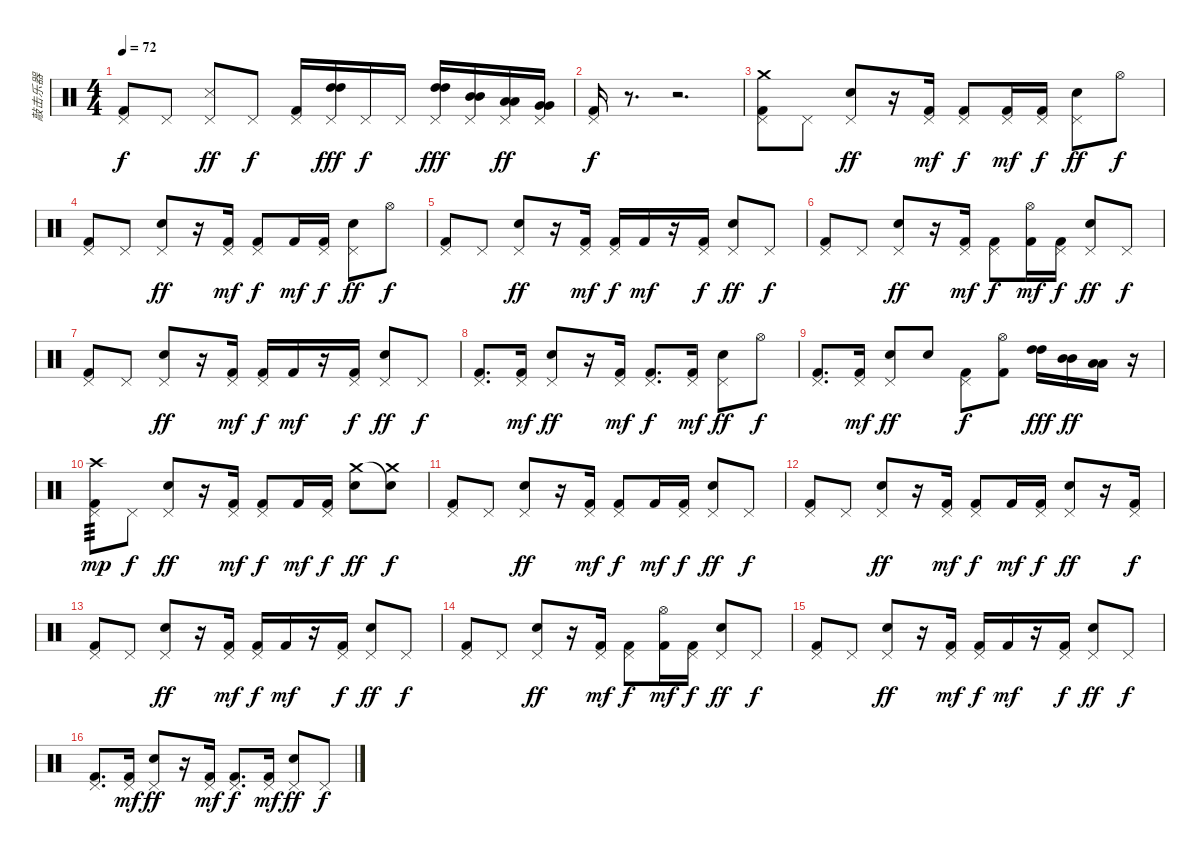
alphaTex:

\track ("敲击乐器" "敲击乐器") {instrument percussion}
\staff {score}
\articulation defaults
\ts (4 4)
\tempo 72
\clef neutral
\ks c
("Pedal Hi-Hat (hit)" "Kick (hit) 2").8{dy f} "Pedal Hi-Hat (hit)".8 ("Pedal Hi-Hat (hit)" "Snare (side stick) 3").8{dy ff} "Pedal Hi-Hat (hit)".8{dy f} ("Pedal Hi-Hat (hit)" "Kick (hit) 2").16 ("Pedal Hi-Hat (hit)" "High Tom (hit)" "High Tom (hit)").16{dy fff} "Pedal Hi-Hat (hit)".16{dy f} "Pedal Hi-Hat (hit)".16 ("Pedal Hi-Hat (hit)" "High Tom (hit)" "High Tom (hit)").16{dy fff} ("Pedal Hi-Hat (hit)" "Mid Tom (hit)" "Mid Tom (hit)").16 ("Pedal Hi-Hat (hit)" "Low Tom (hit)" "Low Tom (hit)").16{dy ff} ("Pedal Hi-Hat (hit)" "Very Low Tom (hit)" "Very Low Tom (hit)").16 |
("Pedal Hi-Hat (hit)" "Kick (hit) 2").16{dy f} r.8{d} r.2{d} |
("Pedal Hi-Hat (hit)" "Kick (hit) 2" "Crash medium (hit)").8 "Pedal Hi-Hat (hit)".8 ("Pedal Hi-Hat (hit)" "Electric Snare (hit)").8{dy ff} r.16 ("Pedal Hi-Hat (hit)" "Kick (hit) 2").16{dy mf} ("Pedal Hi-Hat (hit)" "Kick (hit) 2").8{dy f} ("Pedal Hi-Hat (hit)" "Kick (hit) 2").16{dy mf} ("Pedal Hi-Hat (hit)" "Kick (hit) 2").16{dy f} ("Pedal Hi-Hat (hit)" "Electric Snare (hit)").8{dy ff} "Hi-Hat (open)".8{dy f} |
("Pedal Hi-Hat (hit)" "Kick (hit) 2").8 "Pedal Hi-Hat (hit)".8 ("Pedal Hi-Hat (hit)" "Electric Snare (hit)").8{dy ff} r.16 ("Pedal Hi-Hat (hit)" "Kick (hit) 2").16{dy mf} ("Pedal Hi-Hat (hit)" "Kick (hit) 2").8{dy f} "Kick (hit) 2".16{dy mf} ("Pedal Hi-Hat (hit)" "Kick (hit) 2").16{dy f} ("Pedal Hi-Hat (hit)" "Electric Snare (hit)").8{dy ff} "Hi-Hat (open)".8{dy f} |
("Pedal Hi-Hat (hit)" "Kick (hit) 2").8 "Pedal Hi-Hat (hit)".8 ("Pedal Hi-Hat (hit)" "Electric Snare (hit)").8{dy ff} r.16 ("Pedal Hi-Hat (hit)" "Kick (hit) 2").16{dy mf} ("Pedal Hi-Hat (hit)" "Kick (hit) 2").16{dy f} "Kick (hit) 2".16{dy mf} r.16 ("Pedal Hi-Hat (hit)" "Kick (hit) 2").16{dy f} ("Pedal Hi-Hat (hit)" "Electric Snare (hit)").8{dy ff} "Pedal Hi-Hat (hit)".8{dy f} |
("Pedal Hi-Hat (hit)" "Kick (hit) 2").8 "Pedal Hi-Hat (hit)".8 ("Pedal Hi-Hat (hit)" "Electric Snare (hit)").8{dy ff} r.16 ("Pedal Hi-Hat (hit)" "Kick (hit) 2").16{dy mf} ("Pedal Hi-Hat (hit)" "Kick (hit) 2").8{dy f} ("Hi-Hat (open)" "Kick (hit) 2").16{dy mf} ("Pedal Hi-Hat (hit)" "Kick (hit) 2").16{dy f} ("Pedal Hi-Hat (hit)" "Electric Snare (hit)").8{dy ff} "Pedal Hi-Hat (hit)".8{dy f} |
("Pedal Hi-Hat (hit)" "Kick (hit) 2").8 "Pedal Hi-Hat (hit)".8 ("Pedal Hi-Hat (hit)" "Electric Snare (hit)").8{dy ff} r.16 ("Pedal Hi-Hat (hit)" "Kick (hit) 2").16{dy mf} ("Pedal Hi-Hat (hit)" "Kick (hit) 2").16{dy f} "Kick (hit) 2".16{dy mf} r.16 ("Pedal Hi-Hat (hit)" "Kick (hit) 2").16{dy f} ("Pedal Hi-Hat (hit)" "Electric Snare (hit)").8{dy ff} "Pedal Hi-Hat (hit)".8{dy f} |
("Pedal Hi-Hat (hit)" "Kick (hit) 2").8{d} ("Pedal Hi-Hat (hit)" "Kick (hit) 2").16{dy mf} ("Pedal Hi-Hat (hit)" "Electric Snare (hit)").8{dy ff} r.16 ("Pedal Hi-Hat (hit)" "Kick (hit) 2").16{dy mf} ("Pedal Hi-Hat (hit)" "Kick (hit) 2").8{d dy f} ("Pedal Hi-Hat (hit)" "Kick (hit) 2").16{dy mf} ("Pedal Hi-Hat (hit)" "Electric Snare (hit)").8{dy ff} "Hi-Hat (open)".8{dy f} |
("Pedal Hi-Hat (hit)" "Kick (hit) 2").8{d} ("Pedal Hi-Hat (hit)" "Kick (hit) 2").16{dy mf} ("Pedal Hi-Hat (hit)" "Electric Snare (hit)").8{dy ff} "Electric Snare (hit)".8 ("Pedal Hi-Hat (hit)" "Kick (hit) 2").8{dy f} ("Hi-Hat (open)" "Kick (hit) 2").8 ("High Tom (hit)" "High Tom (hit)").16{dy fff} ("Mid Tom (hit)" "Mid Tom (hit)").16{dy ff} ("Low Tom (hit)" "Low Tom (hit)").16 r.16 |
("Pedal Hi-Hat (hit)" "Kick (hit) 2" "Crash high (hit)").8{tp 3 dy mp} "Pedal Hi-Hat (hit)".8{dy f} ("Pedal Hi-Hat (hit)" "Electric Snare (hit)").8{dy ff} r.16 ("Pedal Hi-Hat (hit)" "Kick (hit) 2").16{dy mf} ("Pedal Hi-Hat (hit)" "Kick (hit) 2").8{dy f} "Kick (hit) 2".16{dy mf} ("Pedal Hi-Hat (hit)" "Kick (hit) 2").16{dy f} ("Electric Snare (hit)" "Crash medium (hit)").8{dy ff} ("Crash medium (hit)" "Snare (hit)"{t}).8{dy f} |
("Pedal Hi-Hat (hit)" "Kick (hit) 2").8 "Pedal Hi-Hat (hit)".8 ("Pedal Hi-Hat (hit)" "Electric Snare (hit)").8{dy ff} r.16 ("Pedal Hi-Hat (hit)" "Kick (hit) 2").16{dy mf} ("Pedal Hi-Hat (hit)" "Kick (hit) 2").8{dy f} "Kick (hit) 2".16{dy mf} ("Pedal Hi-Hat (hit)" "Kick (hit) 2").16{dy f} ("Pedal Hi-Hat (hit)" "Electric Snare (hit)").8{dy ff} "Pedal Hi-Hat (hit)".8{dy f} |
("Pedal Hi-Hat (hit)" "Kick (hit) 2").8 "Pedal Hi-Hat (hit)".8 ("Pedal Hi-Hat (hit)" "Electric Snare (hit)").8{dy ff} r.16 ("Pedal Hi-Hat (hit)" "Kick (hit) 2").16{dy mf} ("Pedal Hi-Hat (hit)" "Kick (hit) 2").8{dy f} "Kick (hit) 2".16{dy mf} ("Pedal Hi-Hat (hit)" "Kick (hit) 2").16{dy f} ("Pedal Hi-Hat (hit)" "Electric Snare (hit)").8{dy ff} r.16 ("Pedal Hi-Hat (hit)" "Kick (hit) 2").16{dy f} |
("Pedal Hi-Hat (hit)" "Kick (hit) 2").8 "Pedal Hi-Hat (hit)".8 ("Pedal Hi-Hat (hit)" "Electric Snare (hit)").8{dy ff} r.16 ("Pedal Hi-Hat (hit)" "Kick (hit) 2").16{dy mf} ("Pedal Hi-Hat (hit)" "Kick (hit) 2").16{dy f} "Kick (hit) 2".16{dy mf} r.16 ("Pedal Hi-Hat (hit)" "Kick (hit) 2").16{dy f} ("Pedal Hi-Hat (hit)" "Electric Snare (hit)").8{dy ff} "Pedal Hi-Hat (hit)".8{dy f} |
("Pedal Hi-Hat (hit)" "Kick (hit) 2").8 "Pedal Hi-Hat (hit)".8 ("Pedal Hi-Hat (hit)" "Electric Snare (hit)").8{dy ff} r.16 ("Pedal Hi-Hat (hit)" "Kick (hit) 2").16{dy mf} ("Pedal Hi-Hat (hit)" "Kick (hit) 2").8{dy f} ("Hi-Hat (open)" "Kick (hit) 2").16{dy mf} ("Pedal Hi-Hat (hit)" "Kick (hit) 2").16{dy f} ("Pedal Hi-Hat (hit)" "Electric Snare (hit)").8{dy ff} "Pedal Hi-Hat (hit)".8{dy f} |
("Pedal Hi-Hat (hit)" "Kick (hit) 2").8 "Pedal Hi-Hat (hit)".8 ("Pedal Hi-Hat (hit)" "Electric Snare (hit)").8{dy ff} r.16 ("Pedal Hi-Hat (hit)" "Kick (hit) 2").16{dy mf} ("Pedal Hi-Hat (hit)" "Kick (hit) 2").16{dy f} "Kick (hit) 2".16{dy mf} r.16 ("Pedal Hi-Hat (hit)" "Kick (hit) 2").16{dy f} ("Pedal Hi-Hat (hit)" "Electric Snare (hit)").8{dy ff} "Pedal Hi-Hat (hit)".8{dy f} |
("Pedal Hi-Hat (hit)" "Kick (hit) 2").8{d} ("Pedal Hi-Hat (hit)" "Kick (hit) 2").16{dy mf} ("Pedal Hi-Hat (hit)" "Electric Snare (hit)").8{dy ff} r.16 ("Pedal Hi-Hat (hit)" "Kick (hit) 2").16{dy mf} ("Pedal Hi-Hat (hit)" "Kick (hit) 2").8{d dy f} ("Pedal Hi-Hat (hit)" "Kick (hit) 2").16{dy mf} ("Pedal Hi-Hat (hit)" "Electric Snare (hit)").8{dy ff} "Pedal Hi-Hat (hit)".8{dy f}
